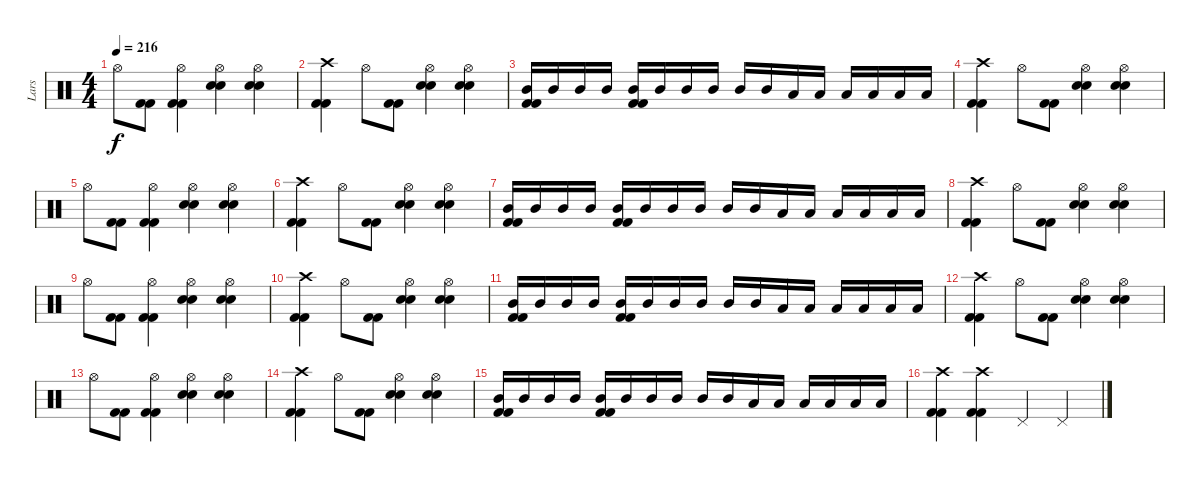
\track ("Lars" "Lars") {instrument percussion}
\staff {score}
\articulation defaults
\ts (4 4)
\tempo 216
\clef neutral
\ks c "Hi-Hat (open)".8{dy f}
("Kick (hit) 2" "Kick (hit) 2").8 ("Hi-Hat (open)" "Kick (hit) 2" "Kick (hit) 2").4 ("Hi-Hat (open)" "Electric Snare (hit)" "Electric Snare (hit)").4 ("Hi-Hat (open)" "Electric Snare (hit)" "Electric Snare (hit)").4 |
("Crash high (hit)" "Kick (hit) 2" "Kick (hit) 2").4 "Hi-Hat (open)".8 ("Kick (hit) 2" "Kick (hit) 2").8 ("Hi-Hat (open)" "Electric Snare (hit)" "Electric Snare (hit)").4 ("Hi-Hat (open)" "Electric Snare (hit)" "Electric Snare (hit)").4 |
("Mid Tom (hit)" "Kick (hit) 2" "Kick (hit) 2").16 "Mid Tom (hit)".16 "Mid Tom (hit)".16 "Mid Tom (hit)".16 ("Mid Tom (hit)" "Kick (hit) 2" "Kick (hit) 2").16 "Mid Tom (hit)".16 "Mid Tom (hit)".16 "Mid Tom (hit)".16 "Mid Tom (hit)".16 "Mid Tom (hit)".16 "Low Tom (hit)".16 "Low Tom (hit)".16 "Low Tom (hit)".16 "Low Tom (hit)".16 "Low Tom (hit)".16 "Low Tom (hit)".16 |
("Crash high (hit)" "Kick (hit) 2" "Kick (hit) 2").4 "Hi-Hat (open)".8 ("Kick (hit) 2" "Kick (hit) 2").8 ("Hi-Hat (open)" "Electric Snare (hit)" "Electric Snare (hit)").4 ("Hi-Hat (open)" "Electric Snare (hit)" "Electric Snare (hit)").4 |
"Hi-Hat (open)".8 ("Kick (hit) 2" "Kick (hit) 2").8 ("Hi-Hat (open)" "Kick (hit) 2" "Kick (hit) 2").4 ("Hi-Hat (open)" "Electric Snare (hit)" "Electric Snare (hit)").4 ("Hi-Hat (open)" "Electric Snare (hit)" "Electric Snare (hit)").4 |
("Crash high (hit)" "Kick (hit) 2" "Kick (hit) 2").4 "Hi-Hat (open)".8 ("Kick (hit) 2" "Kick (hit) 2").8 ("Hi-Hat (open)" "Electric Snare (hit)" "Electric Snare (hit)").4 ("Hi-Hat (open)" "Electric Snare (hit)" "Electric Snare (hit)").4 |
("Mid Tom (hit)" "Kick (hit) 2" "Kick (hit) 2").16 "Mid Tom (hit)".16 "Mid Tom (hit)".16 "Mid Tom (hit)".16 ("Mid Tom (hit)" "Kick (hit) 2" "Kick (hit) 2").16 "Mid Tom (hit)".16 "Mid Tom (hit)".16 "Mid Tom (hit)".16 "Mid Tom (hit)".16 "Mid Tom (hit)".16 "Low Tom (hit)".16 "Low Tom (hit)".16 "Low Tom (hit)".16 "Low Tom (hit)".16 "Low Tom (hit)".16 "Low Tom (hit)".16 |
("Crash high (hit)" "Kick (hit) 2" "Kick (hit) 2").4 "Hi-Hat (open)".8 ("Kick (hit) 2" "Kick (hit) 2").8 ("Hi-Hat (open)" "Electric Snare (hit)" "Electric Snare (hit)").4 ("Hi-Hat (open)" "Electric Snare (hit)" "Electric Snare (hit)").4 |
"Hi-Hat (open)".8 ("Kick (hit) 2" "Kick (hit) 2").8 ("Hi-Hat (open)" "Kick (hit) 2" "Kick (hit) 2").4 ("Hi-Hat (open)" "Electric Snare (hit)" "Electric Snare (hit)").4 ("Hi-Hat (open)" "Electric Snare (hit)" "Electric Snare (hit)").4 |
("Crash high (hit)" "Kick (hit) 2" "Kick (hit) 2").4 "Hi-Hat (open)".8 ("Kick (hit) 2" "Kick (hit) 2").8 ("Hi-Hat (open)" "Electric Snare (hit)" "Electric Snare (hit)").4 ("Hi-Hat (open)" "Electric Snare (hit)" "Electric Snare (hit)").4 |
("Mid Tom (hit)" "Kick (hit) 2" "Kick (hit) 2").16 "Mid Tom (hit)".16 "Mid Tom (hit)".16 "Mid Tom (hit)".16 ("Mid Tom (hit)" "Kick (hit) 2" "Kick (hit) 2").16 "Mid Tom (hit)".16 "Mid Tom (hit)".16 "Mid Tom (hit)".16 "Mid Tom (hit)".16 "Mid Tom (hit)".16 "Low Tom (hit)".16 "Low Tom (hit)".16 "Low Tom (hit)".16 "Low Tom (hit)".16 "Low Tom (hit)".16 "Low Tom (hit)".16 |
("Crash high (hit)" "Kick (hit) 2" "Kick (hit) 2").4 "Hi-Hat (open)".8 ("Kick (hit) 2" "Kick (hit) 2").8 ("Hi-Hat (open)" "Electric Snare (hit)" "Electric Snare (hit)").4 ("Hi-Hat (open)" "Electric Snare (hit)" "Electric Snare (hit)").4 |
"Hi-Hat (open)".8 ("Kick (hit) 2" "Kick (hit) 2").8 ("Hi-Hat (open)" "Kick (hit) 2" "Kick (hit) 2").4 ("Hi-Hat (open)" "Electric Snare (hit)" "Electric Snare (hit)").4 ("Hi-Hat (open)" "Electric Snare (hit)" "Electric Snare (hit)").4 |
("Crash high (hit)" "Kick (hit) 2" "Kick (hit) 2").4 "Hi-Hat (open)".8 ("Kick (hit) 2" "Kick (hit) 2").8 ("Hi-Hat (open)" "Electric Snare (hit)" "Electric Snare (hit)").4 ("Hi-Hat (open)" "Electric Snare (hit)" "Electric Snare (hit)").4 |
("Mid Tom (hit)" "Kick (hit) 2" "Kick (hit) 2").16 "Mid Tom (hit)".16 "Mid Tom (hit)".16 "Mid Tom (hit)".16 ("Mid Tom (hit)" "Kick (hit) 2" "Kick (hit) 2").16 "Mid Tom (hit)".16 "Mid Tom (hit)".16 "Mid Tom (hit)".16 "Mid Tom (hit)".16 "Mid Tom (hit)".16 "Low Tom (hit)".16 "Low Tom (hit)".16 "Low Tom (hit)".16 "Low Tom (hit)".16 "Low Tom (hit)".16 "Low Tom (hit)".16 |
("Crash high (hit)" "Kick (hit) 2" "Kick (hit) 2").4 ("Crash high (hit)" "Kick (hit) 2" "Kick (hit) 2").4 "Pedal Hi-Hat (hit)".4 "Pedal Hi-Hat (hit)".4
